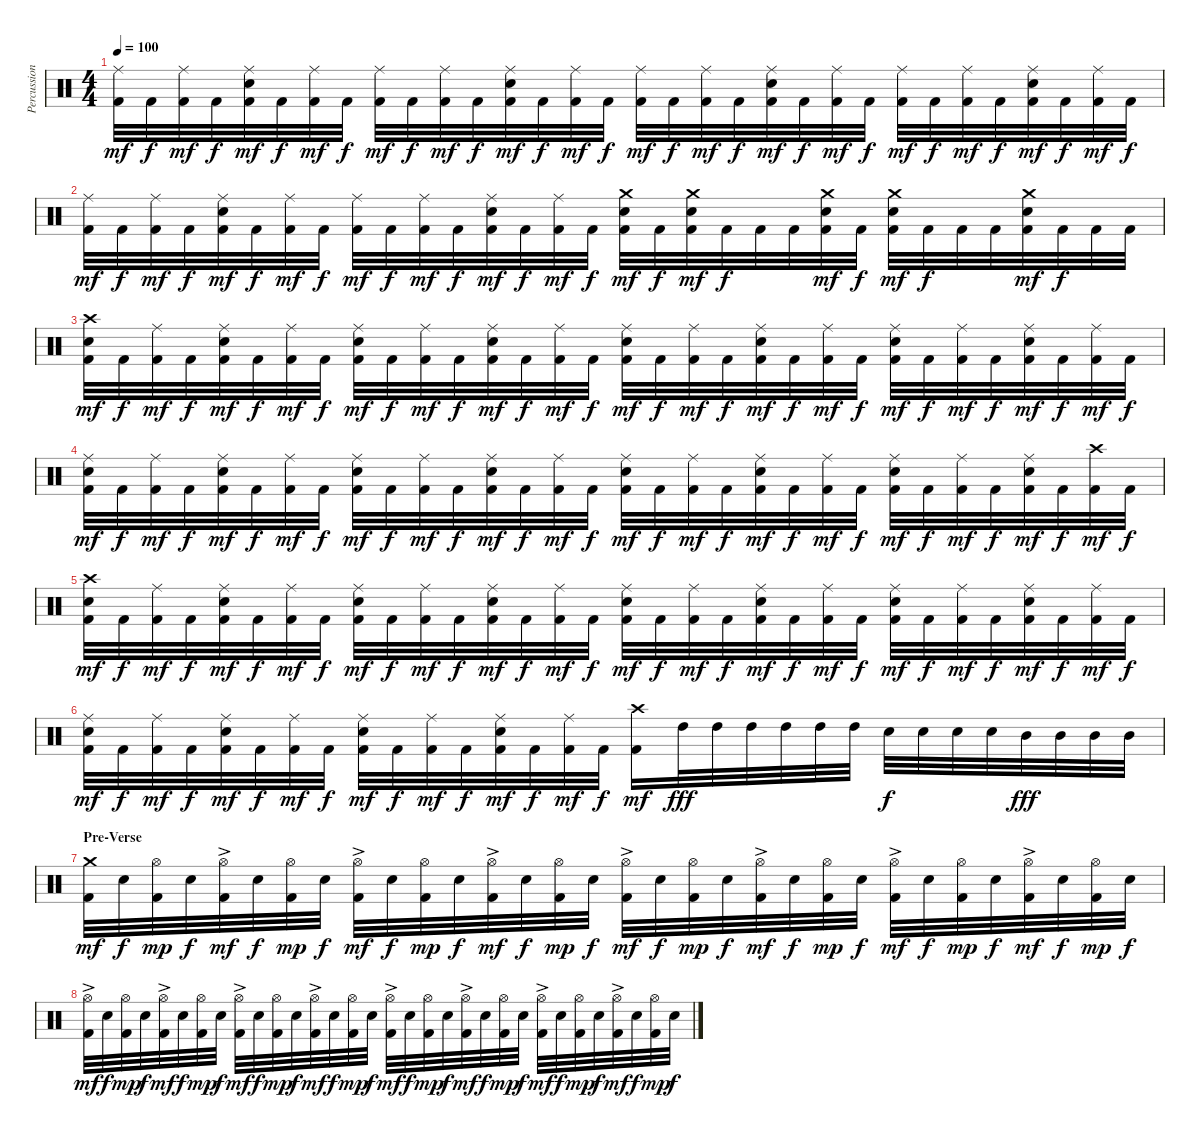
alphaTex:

\track ("Percussion" "Percussion") {instrument percussion}
\staff {score}
\articulation defaults
\ts (4 4)
\tempo 100
\clef neutral
\ks c
("Ride (middle)" "Kick (hit) 2").32{dy mf} "Kick (hit) 2".32{dy f} ("Ride (middle)" "Kick (hit) 2").32{dy mf} "Kick (hit) 2".32{dy f} ("Ride (middle)" "Electric Snare (hit)" "Kick (hit) 2").32{dy mf} "Kick (hit) 2".32{dy f} ("Ride (middle)" "Kick (hit) 2").32{dy mf} "Kick (hit) 2".32{dy f} ("Ride (middle)" "Kick (hit) 2").32{dy mf} "Kick (hit) 2".32{dy f} ("Ride (middle)" "Kick (hit) 2").32{dy mf} "Kick (hit) 2".32{dy f} ("Ride (middle)" "Electric Snare (hit)" "Kick (hit) 2").32{dy mf} "Kick (hit) 2".32{dy f} ("Ride (middle)" "Kick (hit) 2").32{dy mf} "Kick (hit) 2".32{dy f} ("Ride (middle)" "Kick (hit) 2").32{dy mf} "Kick (hit) 2".32{dy f} ("Ride (middle)" "Kick (hit) 2").32{dy mf} "Kick (hit) 2".32{dy f} ("Ride (middle)" "Electric Snare (hit)" "Kick (hit) 2").32{dy mf} "Kick (hit) 2".32{dy f} ("Ride (middle)" "Kick (hit) 2").32{dy mf} "Kick (hit) 2".32{dy f} ("Ride (middle)" "Kick (hit) 2").32{dy mf} "Kick (hit) 2".32{dy f} ("Ride (middle)" "Kick (hit) 2").32{dy mf} "Kick (hit) 2".32{dy f} ("Ride (middle)" "Electric Snare (hit)" "Kick (hit) 2").32{dy mf} "Kick (hit) 2".32{dy f} ("Ride (middle)" "Kick (hit) 2").32{dy mf} "Kick (hit) 2".32{dy f} |
("Ride (middle)" "Kick (hit) 2").32{dy mf} "Kick (hit) 2".32{dy f} ("Ride (middle)" "Kick (hit) 2").32{dy mf} "Kick (hit) 2".32{dy f} ("Ride (middle)" "Electric Snare (hit)" "Kick (hit) 2").32{dy mf} "Kick (hit) 2".32{dy f} ("Ride (middle)" "Kick (hit) 2").32{dy mf} "Kick (hit) 2".32{dy f} ("Ride (middle)" "Kick (hit) 2").32{dy mf} "Kick (hit) 2".32{dy f} ("Ride (middle)" "Kick (hit) 2").32{dy mf} "Kick (hit) 2".32{dy f} ("Ride (middle)" "Electric Snare (hit)" "Kick (hit) 2").32{dy mf} "Kick (hit) 2".32{dy f} ("Ride (middle)" "Kick (hit) 2").32{dy mf} "Kick (hit) 2".32{dy f} ("Crash medium (hit)" "Electric Snare (hit)" "Kick (hit) 2").32{dy mf} "Kick (hit) 2".32{dy f} ("Crash medium (hit)" "Electric Snare (hit)" "Kick (hit) 2").32{dy mf} "Kick (hit) 2".32{dy f} "Kick (hit) 2".32 "Kick (hit) 2".32 ("Crash medium (hit)" "Electric Snare (hit)" "Kick (hit) 2").32{dy mf} "Kick (hit) 2".32{dy f} ("Crash medium (hit)" "Electric Snare (hit)" "Kick (hit) 2").32{dy mf} "Kick (hit) 2".32{dy f} "Kick (hit) 2".32 "Kick (hit) 2".32 ("Crash medium (hit)" "Electric Snare (hit)" "Kick (hit) 2").32{dy mf} "Kick (hit) 2".32{dy f} "Kick (hit) 2".32 "Kick (hit) 2".32 |
("Crash high (hit)" "Electric Snare (hit)" "Kick (hit) 2").32{dy mf} "Kick (hit) 2".32{dy f} ("Ride (middle)" "Kick (hit) 2").32{dy mf} "Kick (hit) 2".32{dy f} ("Ride (middle)" "Electric Snare (hit)" "Kick (hit) 2").32{dy mf} "Kick (hit) 2".32{dy f} ("Ride (middle)" "Kick (hit) 2").32{dy mf} "Kick (hit) 2".32{dy f} ("Ride (middle)" "Electric Snare (hit)" "Kick (hit) 2").32{dy mf} "Kick (hit) 2".32{dy f} ("Ride (middle)" "Kick (hit) 2").32{dy mf} "Kick (hit) 2".32{dy f} ("Ride (middle)" "Electric Snare (hit)" "Kick (hit) 2").32{dy mf} "Kick (hit) 2".32{dy f} ("Ride (middle)" "Kick (hit) 2").32{dy mf} "Kick (hit) 2".32{dy f} ("Ride (middle)" "Electric Snare (hit)" "Kick (hit) 2").32{dy mf} "Kick (hit) 2".32{dy f} ("Ride (middle)" "Kick (hit) 2").32{dy mf} "Kick (hit) 2".32{dy f} ("Ride (middle)" "Electric Snare (hit)" "Kick (hit) 2").32{dy mf} "Kick (hit) 2".32{dy f} ("Ride (middle)" "Kick (hit) 2").32{dy mf} "Kick (hit) 2".32{dy f} ("Ride (middle)" "Electric Snare (hit)" "Kick (hit) 2").32{dy mf} "Kick (hit) 2".32{dy f} ("Ride (middle)" "Kick (hit) 2").32{dy mf} "Kick (hit) 2".32{dy f} ("Ride (middle)" "Electric Snare (hit)" "Kick (hit) 2").32{dy mf} "Kick (hit) 2".32{dy f} ("Ride (middle)" "Kick (hit) 2").32{dy mf} "Kick (hit) 2".32{dy f} |
("Ride (middle)" "Electric Snare (hit)" "Kick (hit) 2").32{dy mf} "Kick (hit) 2".32{dy f} ("Ride (middle)" "Kick (hit) 2").32{dy mf} "Kick (hit) 2".32{dy f} ("Ride (middle)" "Electric Snare (hit)" "Kick (hit) 2").32{dy mf} "Kick (hit) 2".32{dy f} ("Ride (middle)" "Kick (hit) 2").32{dy mf} "Kick (hit) 2".32{dy f} ("Ride (middle)" "Electric Snare (hit)" "Kick (hit) 2").32{dy mf} "Kick (hit) 2".32{dy f} ("Ride (middle)" "Kick (hit) 2").32{dy mf} "Kick (hit) 2".32{dy f} ("Ride (middle)" "Electric Snare (hit)" "Kick (hit) 2").32{dy mf} "Kick (hit) 2".32{dy f} ("Ride (middle)" "Kick (hit) 2").32{dy mf} "Kick (hit) 2".32{dy f} ("Ride (middle)" "Electric Snare (hit)" "Kick (hit) 2").32{dy mf} "Kick (hit) 2".32{dy f} ("Ride (middle)" "Kick (hit) 2").32{dy mf} "Kick (hit) 2".32{dy f} ("Ride (middle)" "Electric Snare (hit)" "Kick (hit) 2").32{dy mf} "Kick (hit) 2".32{dy f} ("Ride (middle)" "Kick (hit) 2").32{dy mf} "Kick (hit) 2".32{dy f} ("Ride (middle)" "Electric Snare (hit)" "Kick (hit) 2").32{dy mf} "Kick (hit) 2".32{dy f} ("Ride (middle)" "Kick (hit) 2").32{dy mf} "Kick (hit) 2".32{dy f} ("Ride (middle)" "Electric Snare (hit)" "Kick (hit) 2").32{dy mf} "Kick (hit) 2".32{dy f} ("Crash high (hit)" "Kick (hit) 2").32{dy mf} "Kick (hit) 2".32{dy f} |
("Crash high (hit)" "Electric Snare (hit)" "Kick (hit) 2").32{dy mf} "Kick (hit) 2".32{dy f} ("Ride (middle)" "Kick (hit) 2").32{dy mf} "Kick (hit) 2".32{dy f} ("Ride (middle)" "Electric Snare (hit)" "Kick (hit) 2").32{dy mf} "Kick (hit) 2".32{dy f} ("Ride (middle)" "Kick (hit) 2").32{dy mf} "Kick (hit) 2".32{dy f} ("Ride (middle)" "Electric Snare (hit)" "Kick (hit) 2").32{dy mf} "Kick (hit) 2".32{dy f} ("Ride (middle)" "Kick (hit) 2").32{dy mf} "Kick (hit) 2".32{dy f} ("Ride (middle)" "Electric Snare (hit)" "Kick (hit) 2").32{dy mf} "Kick (hit) 2".32{dy f} ("Ride (middle)" "Kick (hit) 2").32{dy mf} "Kick (hit) 2".32{dy f} ("Ride (middle)" "Electric Snare (hit)" "Kick (hit) 2").32{dy mf} "Kick (hit) 2".32{dy f} ("Ride (middle)" "Kick (hit) 2").32{dy mf} "Kick (hit) 2".32{dy f} ("Ride (middle)" "Electric Snare (hit)" "Kick (hit) 2").32{dy mf} "Kick (hit) 2".32{dy f} ("Ride (middle)" "Kick (hit) 2").32{dy mf} "Kick (hit) 2".32{dy f} ("Ride (middle)" "Electric Snare (hit)" "Kick (hit) 2").32{dy mf} "Kick (hit) 2".32{dy f} ("Ride (middle)" "Kick (hit) 2").32{dy mf} "Kick (hit) 2".32{dy f} ("Ride (middle)" "Electric Snare (hit)" "Kick (hit) 2").32{dy mf} "Kick (hit) 2".32{dy f} ("Ride (middle)" "Kick (hit) 2").32{dy mf} "Kick (hit) 2".32{dy f} |
("Ride (middle)" "Electric Snare (hit)" "Kick (hit) 2").32{dy mf} "Kick (hit) 2".32{dy f} ("Ride (middle)" "Kick (hit) 2").32{dy mf} "Kick (hit) 2".32{dy f} ("Ride (middle)" "Electric Snare (hit)" "Kick (hit) 2").32{dy mf} "Kick (hit) 2".32{dy f} ("Ride (middle)" "Kick (hit) 2").32{dy mf} "Kick (hit) 2".32{dy f} ("Ride (middle)" "Electric Snare (hit)" "Kick (hit) 2").32{dy mf} "Kick (hit) 2".32{dy f} ("Ride (middle)" "Kick (hit) 2").32{dy mf} "Kick (hit) 2".32{dy f} ("Ride (middle)" "Electric Snare (hit)" "Kick (hit) 2").32{dy mf} "Kick (hit) 2".32{dy f} ("Ride (middle)" "Kick (hit) 2").32{dy mf} "Kick (hit) 2".32{dy f} ("Crash high (hit)" "Kick (hit) 2").16{dy mf} "High Tom (hit)".32{dy fff} "High Tom (hit)".32 "High Tom (hit)".32 "High Tom (hit)".32 "High Tom (hit)".32 "High Tom (hit)".32 "Electric Snare (hit)".32{dy f} "Electric Snare (hit)".32 "Electric Snare (hit)".32 "Electric Snare (hit)".32 "Mid Tom (hit)".32{dy fff} "Mid Tom (hit)".32 "Mid Tom (hit)".32 "Mid Tom (hit)".32 |
\section ("" "Pre-Verse")
("Crash medium (hit)" "Kick (hit) 2").32{dy mf} "Electric Snare (hit)".32{dy f} ("Hi-Hat (open)" "Kick (hit) 2").32{dy mp} "Electric Snare (hit)".32{dy f} ("Hi-Hat (open)"{ac} "Kick (hit) 2").32{dy mf} "Electric Snare (hit)".32{dy f} ("Hi-Hat (open)" "Kick (hit) 2").32{dy mp} "Electric Snare (hit)".32{dy f} ("Hi-Hat (open)"{ac} "Kick (hit) 2").32{dy mf} "Electric Snare (hit)".32{dy f} ("Hi-Hat (open)" "Kick (hit) 2").32{dy mp} "Electric Snare (hit)".32{dy f} ("Hi-Hat (open)"{ac} "Kick (hit) 2").32{dy mf} "Electric Snare (hit)".32{dy f} ("Hi-Hat (open)" "Kick (hit) 2").32{dy mp} "Electric Snare (hit)".32{dy f} ("Hi-Hat (open)"{ac} "Kick (hit) 2").32{dy mf} "Electric Snare (hit)".32{dy f} ("Hi-Hat (open)" "Kick (hit) 2").32{dy mp} "Electric Snare (hit)".32{dy f} ("Hi-Hat (open)"{ac} "Kick (hit) 2").32{dy mf} "Electric Snare (hit)".32{dy f} ("Hi-Hat (open)" "Kick (hit) 2").32{dy mp} "Electric Snare (hit)".32{dy f} ("Hi-Hat (open)"{ac} "Kick (hit) 2").32{dy mf} "Electric Snare (hit)".32{dy f} ("Hi-Hat (open)" "Kick (hit) 2").32{dy mp} "Electric Snare (hit)".32{dy f} ("Hi-Hat (open)"{ac} "Kick (hit) 2").32{dy mf} "Electric Snare (hit)".32{dy f} ("Hi-Hat (open)" "Kick (hit) 2").32{dy mp} "Electric Snare (hit)".32{dy f} |
("Hi-Hat (open)"{ac} "Kick (hit) 2").32{dy mf} "Electric Snare (hit)".32{dy f} ("Hi-Hat (open)" "Kick (hit) 2").32{dy mp} "Electric Snare (hit)".32{dy f} ("Hi-Hat (open)"{ac} "Kick (hit) 2").32{dy mf} "Electric Snare (hit)".32{dy f} ("Hi-Hat (open)" "Kick (hit) 2").32{dy mp} "Electric Snare (hit)".32{dy f} ("Hi-Hat (open)"{ac} "Kick (hit) 2").32{dy mf} "Electric Snare (hit)".32{dy f} ("Hi-Hat (open)" "Kick (hit) 2").32{dy mp} "Electric Snare (hit)".32{dy f} ("Hi-Hat (open)"{ac} "Kick (hit) 2").32{dy mf} "Electric Snare (hit)".32{dy f} ("Hi-Hat (open)" "Kick (hit) 2").32{dy mp} "Electric Snare (hit)".32{dy f} ("Hi-Hat (open)"{ac} "Kick (hit) 2").32{dy mf} "Electric Snare (hit)".32{dy f} ("Hi-Hat (open)" "Kick (hit) 2").32{dy mp} "Electric Snare (hit)".32{dy f} ("Hi-Hat (open)"{ac} "Kick (hit) 2").32{dy mf} "Electric Snare (hit)".32{dy f} ("Hi-Hat (open)" "Kick (hit) 2").32{dy mp} "Electric Snare (hit)".32{dy f} ("Hi-Hat (open)"{ac} "Kick (hit) 2").32{dy mf} "Electric Snare (hit)".32{dy f} ("Hi-Hat (open)" "Kick (hit) 2").32{dy mp} "Electric Snare (hit)".32{dy f} ("Hi-Hat (open)"{ac} "Kick (hit) 2").32{dy mf} "Electric Snare (hit)".32{dy f} ("Hi-Hat (open)" "Kick (hit) 2").32{dy mp} "Electric Snare (hit)".32{dy f}
